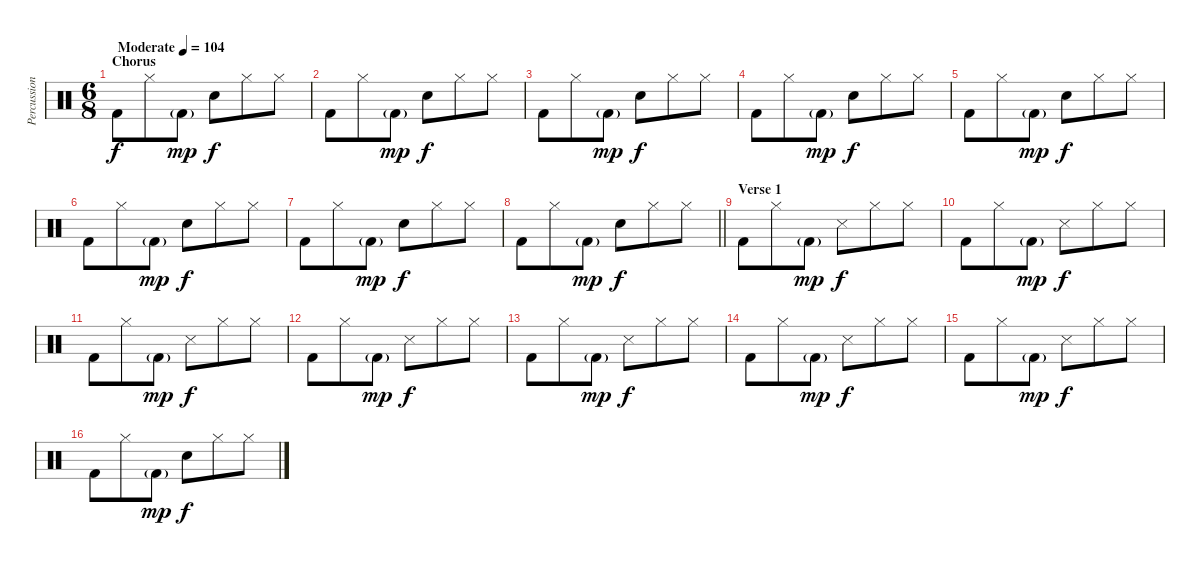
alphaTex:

\track ("Percussion" "Percussion") {instrument percussion}
\staff {score}
\articulation defaults
\ts (6 8)
\section ("" "Chorus")
\tempo (104 "Moderate")
\clef neutral
\ks c "Kick (hit) 2".8{dy f} "Hi-Hat (closed)".8 "Kick (hit) 2"{g}.8{dy mp} "Snare (hit) 2".8{dy f} "Hi-Hat (closed)".8 "Hi-Hat (closed)".8
|
"Kick (hit) 2".8 "Hi-Hat (closed)".8 "Kick (hit) 2"{g}.8{dy mp} "Snare (hit) 2".8{dy f} "Hi-Hat (closed)".8 "Hi-Hat (closed)".8 |
"Kick (hit) 2".8 "Hi-Hat (closed)".8 "Kick (hit) 2"{g}.8{dy mp} "Snare (hit) 2".8{dy f} "Hi-Hat (closed)".8 "Hi-Hat (closed)".8 |
"Kick (hit) 2".8 "Hi-Hat (closed)".8 "Kick (hit) 2"{g}.8{dy mp} "Snare (hit) 2".8{dy f} "Hi-Hat (closed)".8 "Hi-Hat (closed)".8 |
"Kick (hit) 2".8 "Hi-Hat (closed)".8 "Kick (hit) 2"{g}.8{dy mp} "Snare (hit) 2".8{dy f} "Hi-Hat (closed)".8 "Hi-Hat (closed)".8 |
"Kick (hit) 2".8 "Hi-Hat (closed)".8 "Kick (hit) 2"{g}.8{dy mp} "Snare (hit) 2".8{dy f} "Hi-Hat (closed)".8 "Hi-Hat (closed)".8 |
"Kick (hit) 2".8 "Hi-Hat (closed)".8 "Kick (hit) 2"{g}.8{dy mp} "Snare (hit) 2".8{dy f} "Hi-Hat (closed)".8 "Hi-Hat (closed)".8 |
\barLineRight lightlight "Kick (hit) 2".8 "Hi-Hat (closed)".8 "Kick (hit) 2"{g}.8{dy mp} "Snare (hit) 2".8{dy f} "Hi-Hat (closed)".8 "Hi-Hat (closed)".8
|
\section ("" "Verse 1")
"Kick (hit) 2".8 "Hi-Hat (closed)".8 "Kick (hit) 2"{g}.8{dy mp} "Snare (side stick) 3".8{dy f} "Hi-Hat (closed)".8 "Hi-Hat (closed)".8 |
"Kick (hit) 2".8 "Hi-Hat (closed)".8 "Kick (hit) 2"{g}.8{dy mp} "Snare (side stick) 3".8{dy f} "Hi-Hat (closed)".8 "Hi-Hat (closed)".8 |
"Kick (hit) 2".8 "Hi-Hat (closed)".8 "Kick (hit) 2"{g}.8{dy mp} "Snare (side stick) 3".8{dy f} "Hi-Hat (closed)".8 "Hi-Hat (closed)".8 |
"Kick (hit) 2".8 "Hi-Hat (closed)".8 "Kick (hit) 2"{g}.8{dy mp} "Snare (side stick) 3".8{dy f} "Hi-Hat (closed)".8 "Hi-Hat (closed)".8 |
"Kick (hit) 2".8 "Hi-Hat (closed)".8 "Kick (hit) 2"{g}.8{dy mp} "Snare (side stick) 3".8{dy f} "Hi-Hat (closed)".8 "Hi-Hat (closed)".8 |
"Kick (hit) 2".8 "Hi-Hat (closed)".8 "Kick (hit) 2"{g}.8{dy mp} "Snare (side stick) 3".8{dy f} "Hi-Hat (closed)".8 "Hi-Hat (closed)".8 |
"Kick (hit) 2".8 "Hi-Hat (closed)".8 "Kick (hit) 2"{g}.8{dy mp} "Snare (side stick) 3".8{dy f} "Hi-Hat (closed)".8 "Hi-Hat (closed)".8 |
"Kick (hit) 2".8 "Hi-Hat (closed)".8 "Kick (hit) 2"{g}.8{dy mp} "Snare (hit) 2".8{dy f} "Hi-Hat (closed)".8 "Hi-Hat (closed)".8
